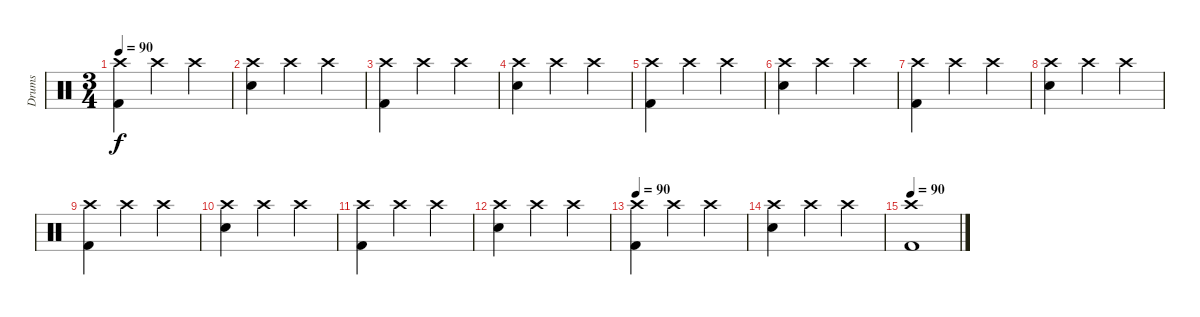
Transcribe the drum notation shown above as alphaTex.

\track ("Drums" "Drums") {instrument percussion}
\staff {score}
\articulation defaults
\ts (3 4)
\tempo 90
\clef neutral
\ks c
("Crash high (hit)" "Kick (hit) 2").4{dy f} "Crash high (hit)".4 "Crash high (hit)".4 |
("Crash high (hit)" "Snare (hit) 2").4 "Crash high (hit)".4 "Crash high (hit)".4 |
("Crash high (hit)" "Kick (hit) 2").4 "Crash high (hit)".4 "Crash high (hit)".4 |
("Crash high (hit)" "Snare (hit) 2").4 "Crash high (hit)".4 "Crash high (hit)".4 |
("Crash high (hit)" "Kick (hit) 2").4 "Crash high (hit)".4 "Crash high (hit)".4 |
("Crash high (hit)" "Snare (hit) 2").4 "Crash high (hit)".4 "Crash high (hit)".4 |
("Crash high (hit)" "Kick (hit) 2").4 "Crash high (hit)".4 "Crash high (hit)".4 |
("Crash high (hit)" "Snare (hit) 2").4 "Crash high (hit)".4 "Crash high (hit)".4 |
("Crash high (hit)" "Kick (hit) 2").4 "Crash high (hit)".4 "Crash high (hit)".4 |
("Crash high (hit)" "Snare (hit) 2").4 "Crash high (hit)".4 "Crash high (hit)".4 |
("Crash high (hit)" "Kick (hit) 2").4 "Crash high (hit)".4 "Crash high (hit)".4 |
("Crash high (hit)" "Snare (hit) 2").4 "Crash high (hit)".4 "Crash high (hit)".4 |
\tempo 90
("Crash high (hit)" "Kick (hit) 2").4 "Crash high (hit)".4 "Crash high (hit)".4 |
("Crash high (hit)" "Snare (hit) 2").4 "Crash high (hit)".4 "Crash high (hit)".4 |
\tempo 90
("Crash high (hit)" "Kick (hit) 2").1
